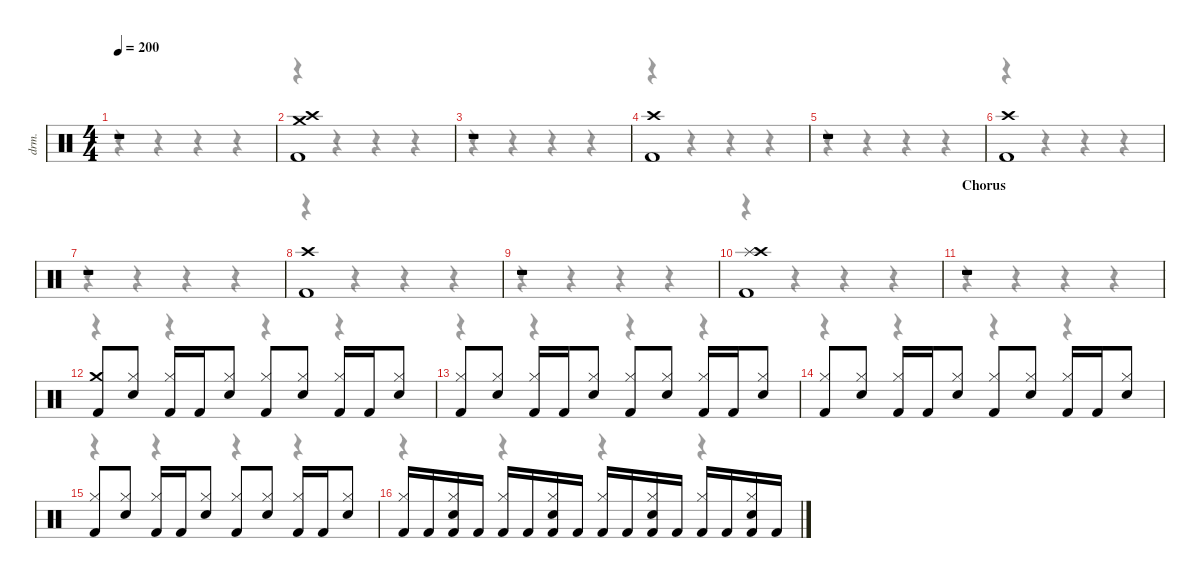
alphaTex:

\defaultSystemsLayout 4
\hideDynamics
\bracketExtendMode nobrackets
\otherSystemsTrackNameOrientation horizontal
\track ("David Mackintosh (Drums)" "drm.") {instrument percussion}
\staff {score}
\articulation defaults
\voice
\ts (4 4)
\tempo 200
\clef neutral
\ks c
r.1{dy f} |
("Kick (hit) 2" "Crash medium (hit)" "Crash high (hit)").1 |
r.1 |
("Kick (hit) 2" "Crash high (hit)").1 |
r.1 |
("Kick (hit) 2" "Crash high (hit)").1 |
r.1 |
("Kick (hit) 2" "Crash high (hit)").1 |
r.1 |
("Kick (hit) 2" "Splash (hit)" "Crash high (hit)").1 |
\section ("" "Chorus")
r.1 |
("Kick (hit) 2" "Crash medium (hit)").8 ("Snare (hit) 2" "Hi-Hat (closed)").8 ("Kick (hit) 2" "Hi-Hat (closed)").16 "Kick (hit) 2".16 ("Snare (hit) 2" "Hi-Hat (closed)").8 ("Kick (hit) 2" "Hi-Hat (closed)").8 ("Snare (hit) 2" "Hi-Hat (closed)").8 ("Kick (hit) 2" "Hi-Hat (closed)").16 "Kick (hit) 2".16 ("Snare (hit) 2" "Hi-Hat (closed)").8 |
("Kick (hit) 2" "Hi-Hat (closed)").8 ("Snare (hit) 2" "Hi-Hat (closed)").8 ("Kick (hit) 2" "Hi-Hat (closed)").16 "Kick (hit) 2".16 ("Snare (hit) 2" "Hi-Hat (closed)").8 ("Kick (hit) 2" "Hi-Hat (closed)").8 ("Snare (hit) 2" "Hi-Hat (closed)").8 ("Kick (hit) 2" "Hi-Hat (closed)").16 "Kick (hit) 2".16 ("Snare (hit) 2" "Hi-Hat (closed)").8 |
("Kick (hit) 2" "Hi-Hat (closed)").8 ("Snare (hit) 2" "Hi-Hat (closed)").8 ("Kick (hit) 2" "Hi-Hat (closed)").16 "Kick (hit) 2".16 ("Snare (hit) 2" "Hi-Hat (closed)").8 ("Kick (hit) 2" "Hi-Hat (closed)").8 ("Snare (hit) 2" "Hi-Hat (closed)").8 ("Kick (hit) 2" "Hi-Hat (closed)").16 "Kick (hit) 2".16 ("Snare (hit) 2" "Hi-Hat (closed)").8 |
("Kick (hit) 2" "Hi-Hat (closed)").8 ("Snare (hit) 2" "Hi-Hat (closed)").8 ("Kick (hit) 2" "Hi-Hat (closed)").16 "Kick (hit) 2".16 ("Snare (hit) 2" "Hi-Hat (closed)").8 ("Kick (hit) 2" "Hi-Hat (closed)").8 ("Snare (hit) 2" "Hi-Hat (closed)").8 ("Kick (hit) 2" "Hi-Hat (closed)").16 "Kick (hit) 2".16 ("Snare (hit) 2" "Hi-Hat (closed)").8 |
("Kick (hit) 2" "Hi-Hat (closed)").16 "Kick (hit) 2".16 ("Kick (hit) 2" "Snare (hit) 2" "Hi-Hat (closed)").16 "Kick (hit) 2".16 ("Kick (hit) 2" "Hi-Hat (closed)").16 "Kick (hit) 2".16 ("Kick (hit) 2" "Snare (hit) 2" "Hi-Hat (closed)").16 "Kick (hit) 2".16 ("Kick (hit) 2" "Hi-Hat (closed)").16 "Kick (hit) 2".16 ("Kick (hit) 2" "Snare (hit) 2" "Hi-Hat (closed)").16 "Kick (hit) 2".16 ("Kick (hit) 2" "Hi-Hat (closed)").16 "Kick (hit) 2".16 ("Kick (hit) 2" "Snare (hit) 2" "Hi-Hat (closed)").16 "Kick (hit) 2".16
\voice
\clef neutral
\ottava regular
\simile none
\ks c
r.4{dy mf} r.4 r.4 r.4 |
r.4 r.4 r.4 r.4 |
r.4 r.4 r.4 r.4 |
r.4 r.4 r.4 r.4 |
r.4 r.4 r.4 r.4 |
r.4 r.4 r.4 r.4 |
r.4 r.4 r.4 r.4 |
r.4 r.4 r.4 r.4 |
r.4 r.4 r.4 r.4 |
r.4 r.4 r.4 r.4 |
r.4 r.4 r.4 r.4 |
r.4 r.4 r.4 r.4 |
r.4 r.4 r.4 r.4 |
r.4 r.4 r.4 r.4 |
r.4 r.4 r.4 r.4 |
r.4 r.4 r.4 r.4
